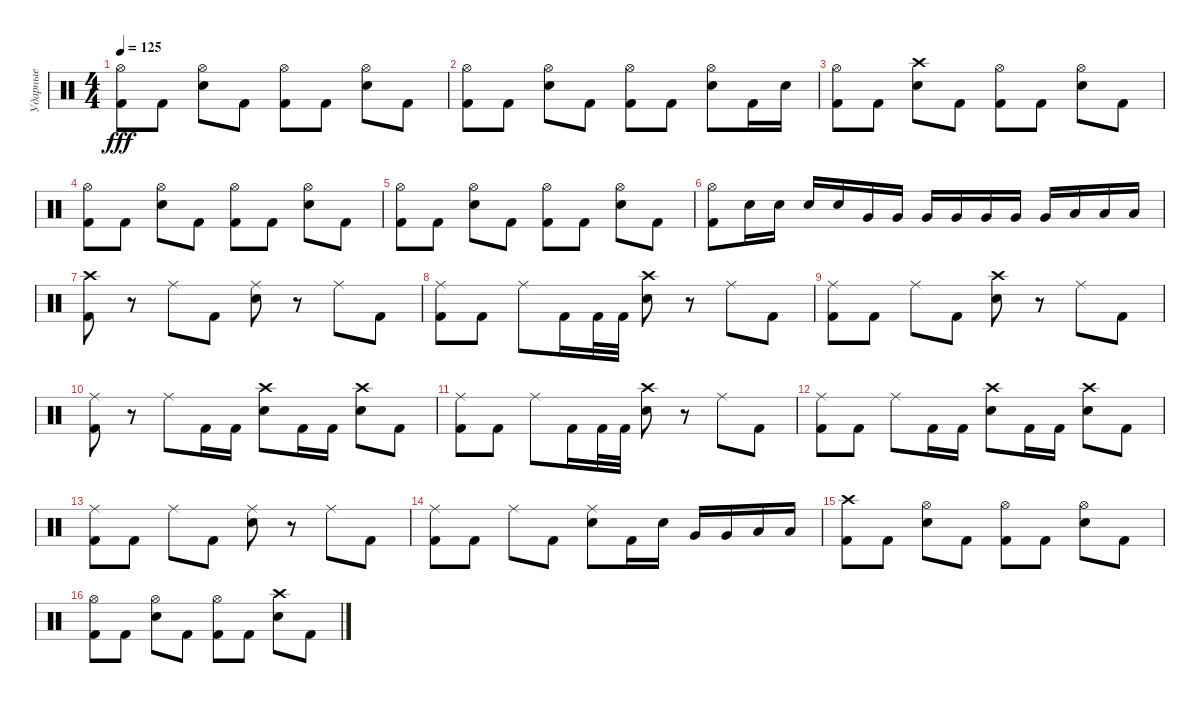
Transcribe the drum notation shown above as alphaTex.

\track ("Ударные" "Ударные") {instrument percussion}
\staff {score}
\articulation defaults
\ts (4 4)
\tempo 125
\clef neutral
\ks c
("Hi-Hat (open)" "Kick (hit) 2").8{dy fff} "Kick (hit) 2".8 ("Hi-Hat (open)" "Electric Snare (hit)").8 "Kick (hit) 2".8 ("Hi-Hat (open)" "Kick (hit) 2").8 "Kick (hit) 2".8 ("Hi-Hat (open)" "Electric Snare (hit)").8 "Kick (hit) 2".8 |
("Hi-Hat (open)" "Kick (hit) 2").8 "Kick (hit) 2".8 ("Hi-Hat (open)" "Electric Snare (hit)").8 "Kick (hit) 2".8 ("Hi-Hat (open)" "Kick (hit) 2").8 "Kick (hit) 2".8 ("Hi-Hat (open)" "Electric Snare (hit)").8 "Kick (hit) 2".16 "Electric Snare (hit)".16 |
("Hi-Hat (open)" "Kick (hit) 2").8 "Kick (hit) 2".8 ("Crash high (hit)" "Electric Snare (hit)").8 "Kick (hit) 2".8 ("Hi-Hat (open)" "Kick (hit) 2").8 "Kick (hit) 2".8 ("Hi-Hat (open)" "Electric Snare (hit)").8 "Kick (hit) 2".8 |
("Hi-Hat (open)" "Kick (hit) 2").8 "Kick (hit) 2".8 ("Hi-Hat (open)" "Electric Snare (hit)").8 "Kick (hit) 2".8 ("Hi-Hat (open)" "Kick (hit) 2").8 "Kick (hit) 2".8 ("Hi-Hat (open)" "Electric Snare (hit)").8 "Kick (hit) 2".8 |
("Hi-Hat (open)" "Kick (hit) 2").8 "Kick (hit) 2".8 ("Hi-Hat (open)" "Electric Snare (hit)").8 "Kick (hit) 2".8 ("Hi-Hat (open)" "Kick (hit) 2").8 "Kick (hit) 2".8 ("Hi-Hat (open)" "Electric Snare (hit)").8 "Kick (hit) 2".8 |
("Hi-Hat (open)" "Kick (hit) 2").8 "Electric Snare (hit)".16 "Electric Snare (hit)".16 "Electric Snare (hit)".16 "Electric Snare (hit)".16 "Very Low Tom (hit)".16 "Very Low Tom (hit)".16 "Very Low Tom (hit)".16 "Very Low Tom (hit)".16 "Very Low Tom (hit)".16 "Very Low Tom (hit)".16 "Very Low Tom (hit)".16 "Low Floor Tom (hit)".16 "Low Floor Tom (hit)".16 "Low Floor Tom (hit)".16 |
("Crash high (hit)" "Kick (hit) 2").8 r.8 "Ride (middle)".8 "Kick (hit) 2".8 ("Ride (middle)" "Electric Snare (hit)").8 r.8 "Ride (middle)".8 "Kick (hit) 2".8 |
("Ride (middle)" "Kick (hit) 2").8 "Kick (hit) 2".8 "Ride (middle)".8 "Kick (hit) 2".16 "Kick (hit) 2".32 "Kick (hit) 2".32 ("Crash high (hit)" "Electric Snare (hit)").8 r.8 "Ride (middle)".8 "Kick (hit) 2".8 |
("Ride (middle)" "Kick (hit) 2").8 "Kick (hit) 2".8 "Ride (middle)".8 "Kick (hit) 2".8 ("Crash high (hit)" "Electric Snare (hit)").8 r.8 "Ride (middle)".8 "Kick (hit) 2".8 |
("Ride (middle)" "Kick (hit) 2").8 r.8 "Ride (middle)".8 "Kick (hit) 2".16 "Kick (hit) 2".16 ("Crash high (hit)" "Electric Snare (hit)").8 "Kick (hit) 2".16 "Kick (hit) 2".16 ("Crash high (hit)" "Electric Snare (hit)").8 "Kick (hit) 2".8 |
("Ride (middle)" "Kick (hit) 2").8 "Kick (hit) 2".8 "Ride (middle)".8 "Kick (hit) 2".16 "Kick (hit) 2".32 "Kick (hit) 2".32 ("Crash high (hit)" "Electric Snare (hit)").8 r.8 "Ride (middle)".8 "Kick (hit) 2".8 |
("Ride (middle)" "Kick (hit) 2").8 "Kick (hit) 2".8 "Ride (middle)".8 "Kick (hit) 2".16 "Kick (hit) 2".16 ("Crash high (hit)" "Electric Snare (hit)").8 "Kick (hit) 2".16 "Kick (hit) 2".16 ("Crash high (hit)" "Electric Snare (hit)").8 "Kick (hit) 2".8 |
("Ride (middle)" "Kick (hit) 2").8 "Kick (hit) 2".8 "Ride (middle)".8 "Kick (hit) 2".8 ("Ride (middle)" "Electric Snare (hit)").8 r.8 "Ride (middle)".8 "Kick (hit) 2".8 |
("Ride (middle)" "Kick (hit) 2").8 "Kick (hit) 2".8 "Ride (middle)".8 "Kick (hit) 2".8 ("Ride (middle)" "Electric Snare (hit)").8 "Kick (hit) 2".16 "Electric Snare (hit)".16 "Very Low Tom (hit)".16 "Very Low Tom (hit)".16 "Low Floor Tom (hit)".16 "Low Floor Tom (hit)".16 |
("Crash high (hit)" "Kick (hit) 2").8 "Kick (hit) 2".8 ("Hi-Hat (open)" "Electric Snare (hit)").8 "Kick (hit) 2".8 ("Hi-Hat (open)" "Kick (hit) 2").8 "Kick (hit) 2".8 ("Hi-Hat (open)" "Electric Snare (hit)").8 "Kick (hit) 2".8 |
("Hi-Hat (open)" "Kick (hit) 2").8 "Kick (hit) 2".8 ("Hi-Hat (open)" "Electric Snare (hit)").8 "Kick (hit) 2".8 ("Hi-Hat (open)" "Kick (hit) 2").8 "Kick (hit) 2".8 ("Crash high (hit)" "Electric Snare (hit)").8 "Kick (hit) 2".8
